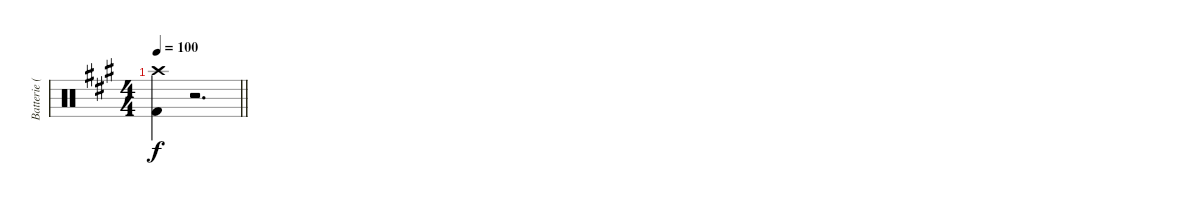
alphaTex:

\track ("Batterie (Phil Roud)" "Batterie (") {instrument percussion}
\staff {score}
\articulation defaults
\ts (4 4)
\tempo 100
\clef neutral
\barLineRight lightlight
\ks a
("Crash high (hit)" "Kick (hit) 2").4{dy f} r.2{d}
